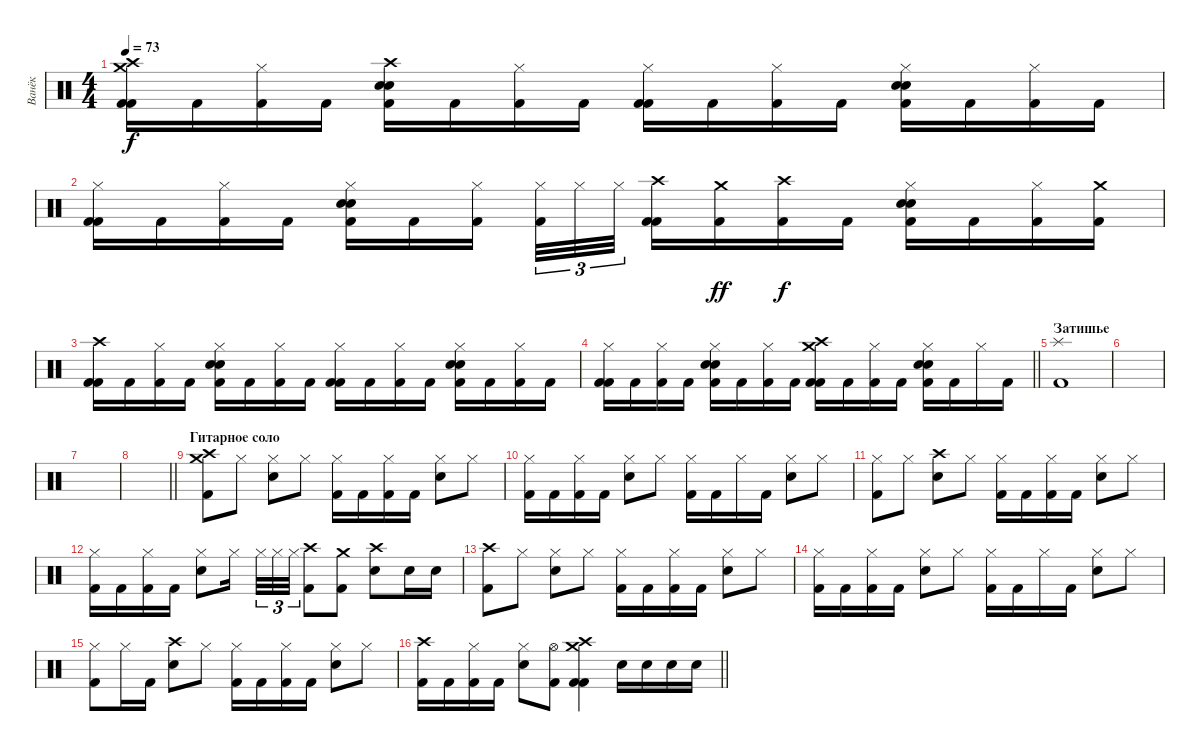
\track ("Ванёк" "Ванёк") {instrument percussion}
\staff {score}
\articulation defaults
\ts (4 4)
\tempo 73
\clef neutral
\ks c
("Crash high (hit)" "Crash medium (hit)" "Kick (hit) 2" "Kick (hit) 2").16{dy f} "Kick (hit) 2".16 ("Hi-Hat (closed)" "Kick (hit) 2").16 "Kick (hit) 2".16 ("Crash high (hit)" "Snare (hit) 2" "Snare (hit) 2" "Kick (hit) 2").16 "Kick (hit) 2".16 ("Hi-Hat (closed)" "Kick (hit) 2").16 "Kick (hit) 2".16 ("Hi-Hat (closed)" "Kick (hit) 2" "Kick (hit) 2").16 "Kick (hit) 2".16 ("Hi-Hat (closed)" "Kick (hit) 2").16 "Kick (hit) 2".16 ("Hi-Hat (closed)" "Snare (hit) 2" "Snare (hit) 2" "Kick (hit) 2").16 "Kick (hit) 2".16 ("Hi-Hat (closed)" "Kick (hit) 2").16 "Kick (hit) 2".16 |
("Hi-Hat (closed)" "Kick (hit) 2" "Kick (hit) 2").16 "Kick (hit) 2".16 ("Hi-Hat (closed)" "Kick (hit) 2").16 "Kick (hit) 2".16 ("Hi-Hat (closed)" "Snare (hit) 2" "Snare (hit) 2" "Kick (hit) 2").16 "Kick (hit) 2".16 ("Hi-Hat (closed)" "Kick (hit) 2").16{beam splitsecondary} ("Hi-Hat (closed)" "Kick (hit) 2").32{tu (3 2)} "Hi-Hat (closed)".32{tu (3 2)} "Hi-Hat (closed)".32{tu (3 2)} ("Crash high (hit)" "Kick (hit) 2" "Kick (hit) 2").16 ("Crash medium (hit)" "Kick (hit) 2").16{dy ff} ("Crash high (hit)" "Kick (hit) 2").16{dy f} "Kick (hit) 2".16 ("Hi-Hat (closed)" "Snare (hit) 2" "Snare (hit) 2" "Kick (hit) 2").16 "Kick (hit) 2".16 ("Hi-Hat (closed)" "Kick (hit) 2").16 ("Crash medium (hit)" "Kick (hit) 2").16 |
("Crash high (hit)" "Kick (hit) 2" "Kick (hit) 2").16 "Kick (hit) 2".16 ("Hi-Hat (closed)" "Kick (hit) 2").16 "Kick (hit) 2".16 ("Hi-Hat (closed)" "Snare (hit) 2" "Snare (hit) 2" "Kick (hit) 2").16 "Kick (hit) 2".16 ("Hi-Hat (closed)" "Kick (hit) 2").16 "Kick (hit) 2".16 ("Hi-Hat (closed)" "Kick (hit) 2" "Kick (hit) 2").16 "Kick (hit) 2".16 ("Hi-Hat (closed)" "Kick (hit) 2").16 "Kick (hit) 2".16 ("Hi-Hat (closed)" "Snare (hit) 2" "Snare (hit) 2" "Kick (hit) 2").16 "Kick (hit) 2".16 ("Hi-Hat (closed)" "Kick (hit) 2").16 "Kick (hit) 2".16 |
\barLineRight lightlight
("Hi-Hat (closed)" "Kick (hit) 2" "Kick (hit) 2").16 "Kick (hit) 2".16 ("Hi-Hat (closed)" "Kick (hit) 2").16 "Kick (hit) 2".16 ("Hi-Hat (closed)" "Snare (hit) 2" "Snare (hit) 2" "Kick (hit) 2").16 "Kick (hit) 2".16 ("Hi-Hat (closed)" "Kick (hit) 2").16 "Kick (hit) 2".16 ("Crash high (hit)" "Crash medium (hit)" "Kick (hit) 2" "Kick (hit) 2").16 "Kick (hit) 2".16 ("Hi-Hat (closed)" "Kick (hit) 2").16 "Kick (hit) 2".16 ("Hi-Hat (closed)" "Snare (hit) 2" "Snare (hit) 2" "Kick (hit) 2").16 "Kick (hit) 2".16 "Hi-Hat (closed)".16 "Kick (hit) 2".16 |
\section ("" "Затишье")
("Splash (hit)" "Kick (hit) 2").1 |
|
|
\barLineRight lightlight
|
\section ("" "Гитарное соло")
("Crash medium (hit)" "Crash high (hit)" "Kick (hit) 2").8 "Hi-Hat (closed)".8 ("Hi-Hat (closed)" "Snare (hit) 2").8 "Hi-Hat (closed)".8 ("Hi-Hat (closed)" "Kick (hit) 2").16 "Kick (hit) 2".16 ("Hi-Hat (closed)" "Kick (hit) 2").16 "Kick (hit) 2".16 ("Hi-Hat (closed)" "Snare (hit) 2").8 "Hi-Hat (closed)".8 |
("Hi-Hat (closed)" "Kick (hit) 2").16 "Kick (hit) 2".16 ("Hi-Hat (closed)" "Kick (hit) 2").16 "Kick (hit) 2".16 ("Hi-Hat (closed)" "Snare (hit) 2").8 "Hi-Hat (closed)".8 ("Hi-Hat (closed)" "Kick (hit) 2").16 "Kick (hit) 2".16 "Hi-Hat (closed)".16 "Kick (hit) 2".16 ("Hi-Hat (closed)" "Snare (hit) 2").8 "Hi-Hat (closed)".8 |
("Hi-Hat (closed)" "Kick (hit) 2").8 "Hi-Hat (closed)".8 ("Crash high (hit)" "Snare (hit) 2").8 "Hi-Hat (closed)".8 ("Hi-Hat (closed)" "Kick (hit) 2").16 "Kick (hit) 2".16 ("Hi-Hat (closed)" "Kick (hit) 2").16 "Kick (hit) 2".16 ("Hi-Hat (closed)" "Snare (hit) 2").8 "Hi-Hat (closed)".8 |
("Hi-Hat (closed)" "Kick (hit) 2").16 "Kick (hit) 2".16 ("Hi-Hat (closed)" "Kick (hit) 2").16 "Kick (hit) 2".16 ("Hi-Hat (closed)" "Snare (hit) 2").8 "Hi-Hat (closed)".16{beam splitsecondary} "Hi-Hat (closed)".32{tu (3 2)} "Hi-Hat (closed)".32{tu (3 2)} "Hi-Hat (closed)".32{tu (3 2)} ("Crash high (hit)" "Kick (hit) 2").8 ("Crash medium (hit)" "Kick (hit) 2").8 ("Crash high (hit)" "Snare (hit) 2").8 "Snare (hit) 2".16 "Snare (hit) 2".16 |
("Crash high (hit)" "Kick (hit) 2").8 "Hi-Hat (closed)".8 ("Hi-Hat (closed)" "Snare (hit) 2").8 "Hi-Hat (closed)".8 ("Hi-Hat (closed)" "Kick (hit) 2").16 "Kick (hit) 2".16 ("Hi-Hat (closed)" "Kick (hit) 2").16 "Kick (hit) 2".16 ("Hi-Hat (closed)" "Snare (hit) 2").8 "Hi-Hat (closed)".8 |
("Hi-Hat (closed)" "Kick (hit) 2").16 "Kick (hit) 2".16 ("Hi-Hat (closed)" "Kick (hit) 2").16 "Kick (hit) 2".16 ("Hi-Hat (closed)" "Snare (hit) 2").8 "Hi-Hat (closed)".8 ("Hi-Hat (closed)" "Kick (hit) 2").16 "Kick (hit) 2".16 "Hi-Hat (closed)".16 "Kick (hit) 2".16 ("Hi-Hat (closed)" "Snare (hit) 2").8 "Hi-Hat (closed)".8 |
("Hi-Hat (closed)" "Kick (hit) 2").8 "Hi-Hat (closed)".16 "Kick (hit) 2".16 ("Crash high (hit)" "Snare (hit) 2").8 "Hi-Hat (closed)".8 ("Hi-Hat (closed)" "Kick (hit) 2").16 "Kick (hit) 2".16 ("Hi-Hat (closed)" "Kick (hit) 2").16 "Kick (hit) 2".16 ("Hi-Hat (closed)" "Snare (hit) 2").8 "Hi-Hat (closed)".8 |
\barLineRight lightlight
("Crash high (hit)" "Kick (hit) 2").16 "Kick (hit) 2".16 ("Hi-Hat (closed)" "Kick (hit) 2").16 "Kick (hit) 2".16 ("Hi-Hat (closed)" "Snare (hit) 2").8 ("Hi-Hat (open)" "Kick (hit) 2").8 ("Crash high (hit)" "Crash medium (hit)" "Kick (hit) 2" "Kick (hit) 2").4 "Snare (hit) 2".16 "Snare (hit) 2".16 "Snare (hit) 2".16 "Snare (hit) 2".16
